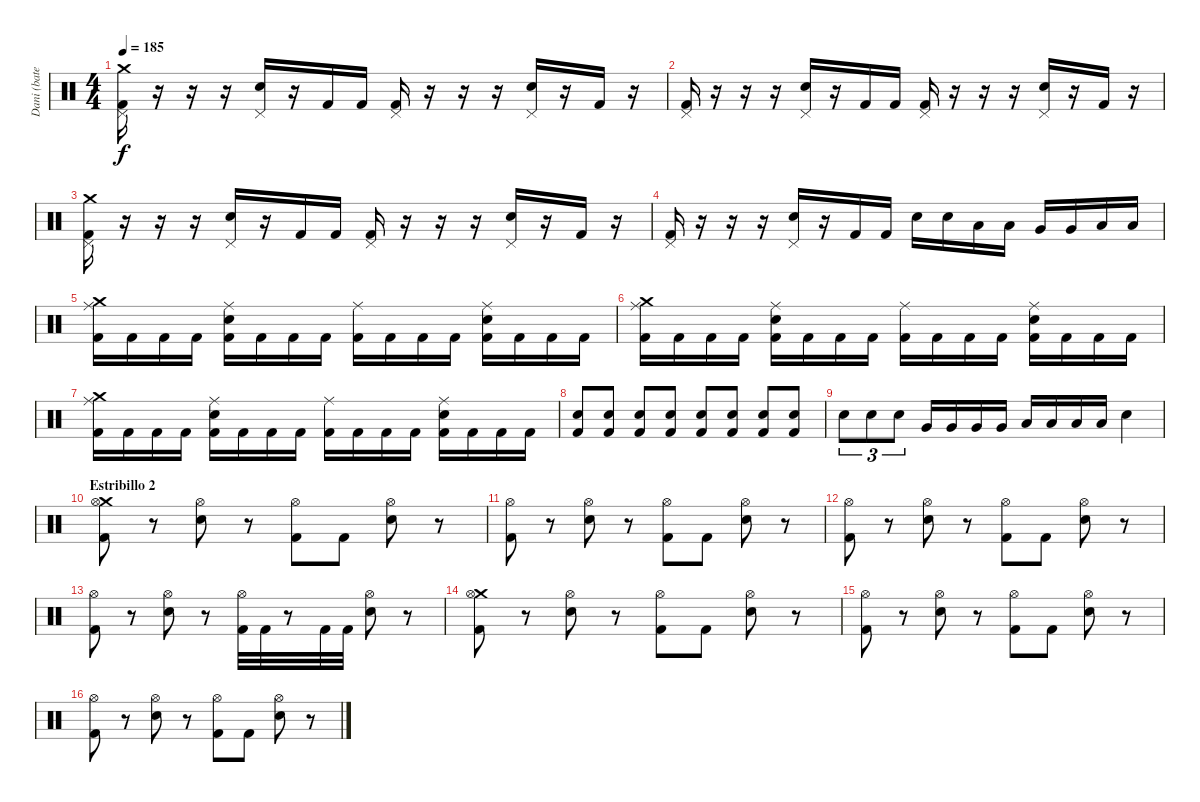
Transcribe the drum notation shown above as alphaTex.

\track ("Dani (batería)" "Dani (bate") {instrument percussion}
\staff {score}
\articulation defaults
\ts (4 4)
\tempo 185
\clef neutral
\ks c
("Crash medium (hit)" "Pedal Hi-Hat (hit)" "Kick (hit) 2").16{dy f} r.16 r.16 r.16 ("Pedal Hi-Hat (hit)" "Snare (hit) 2").16 r.16 "Kick (hit) 2".16 "Kick (hit) 2".16 ("Pedal Hi-Hat (hit)" "Kick (hit) 2").16 r.16 r.16 r.16 ("Pedal Hi-Hat (hit)" "Snare (hit) 2").16 r.16 "Kick (hit) 2".16 r.16 |
("Pedal Hi-Hat (hit)" "Kick (hit) 2").16 r.16 r.16 r.16 ("Pedal Hi-Hat (hit)" "Snare (hit) 2").16 r.16 "Kick (hit) 2".16 "Kick (hit) 2".16 ("Pedal Hi-Hat (hit)" "Kick (hit) 2").16 r.16 r.16 r.16 ("Pedal Hi-Hat (hit)" "Snare (hit) 2").16 r.16 "Kick (hit) 2".16 r.16 |
("Crash medium (hit)" "Pedal Hi-Hat (hit)" "Kick (hit) 2").16 r.16 r.16 r.16 ("Pedal Hi-Hat (hit)" "Snare (hit) 2").16 r.16 "Kick (hit) 2".16 "Kick (hit) 2".16 ("Pedal Hi-Hat (hit)" "Kick (hit) 2").16 r.16 r.16 r.16 ("Pedal Hi-Hat (hit)" "Snare (hit) 2").16 r.16 "Kick (hit) 2".16 r.16 |
("Pedal Hi-Hat (hit)" "Kick (hit) 2").16 r.16 r.16 r.16 ("Pedal Hi-Hat (hit)" "Snare (hit) 2").16 r.16 "Kick (hit) 2".16 "Kick (hit) 2".16 "Snare (hit) 2".16 "Snare (hit) 2".16 "Low Tom (hit)".16 "Low Tom (hit)".16 "Very Low Tom (hit)".16 "Very Low Tom (hit)".16 "Low Floor Tom (hit)".16 "Low Floor Tom (hit)".16 |
("Crash medium (hit)" "Ride (middle)" "Kick (hit) 2").16 "Kick (hit) 2".16 "Kick (hit) 2".16 "Kick (hit) 2".16 ("Ride (middle)" "Snare (hit) 2" "Kick (hit) 2").16 "Kick (hit) 2".16 "Kick (hit) 2".16 "Kick (hit) 2".16 ("Ride (middle)" "Kick (hit) 2").16 "Kick (hit) 2".16 "Kick (hit) 2".16 "Kick (hit) 2".16 ("Ride (middle)" "Snare (hit) 2" "Kick (hit) 2").16 "Kick (hit) 2".16 "Kick (hit) 2".16 "Kick (hit) 2".16 |
("Crash medium (hit)" "Ride (middle)" "Kick (hit) 2").16 "Kick (hit) 2".16 "Kick (hit) 2".16 "Kick (hit) 2".16 ("Ride (middle)" "Snare (hit) 2" "Kick (hit) 2").16 "Kick (hit) 2".16 "Kick (hit) 2".16 "Kick (hit) 2".16 ("Ride (middle)" "Kick (hit) 2").16 "Kick (hit) 2".16 "Kick (hit) 2".16 "Kick (hit) 2".16 ("Ride (middle)" "Snare (hit) 2" "Kick (hit) 2").16 "Kick (hit) 2".16 "Kick (hit) 2".16 "Kick (hit) 2".16 |
("Crash medium (hit)" "Ride (middle)" "Kick (hit) 2").16 "Kick (hit) 2".16 "Kick (hit) 2".16 "Kick (hit) 2".16 ("Ride (middle)" "Snare (hit) 2" "Kick (hit) 2").16 "Kick (hit) 2".16 "Kick (hit) 2".16 "Kick (hit) 2".16 ("Ride (middle)" "Kick (hit) 2").16 "Kick (hit) 2".16 "Kick (hit) 2".16 "Kick (hit) 2".16 ("Ride (middle)" "Snare (hit) 2" "Kick (hit) 2").16 "Kick (hit) 2".16 "Kick (hit) 2".16 "Kick (hit) 2".16 |
("Snare (hit) 2" "Kick (hit) 2").8 ("Snare (hit) 2" "Kick (hit) 2").8 ("Snare (hit) 2" "Kick (hit) 2").8 ("Snare (hit) 2" "Kick (hit) 2").8 ("Snare (hit) 2" "Kick (hit) 2").8 ("Snare (hit) 2" "Kick (hit) 2").8 ("Snare (hit) 2" "Kick (hit) 2").8 ("Snare (hit) 2" "Kick (hit) 2").8 |
"Snare (hit) 2".8{tu (3 2)} "Snare (hit) 2".8{tu (3 2)} "Snare (hit) 2".8{tu (3 2)} "Very Low Tom (hit)".16 "Very Low Tom (hit)".16 "Very Low Tom (hit)".16 "Very Low Tom (hit)".16 "Low Floor Tom (hit)".16 "Low Floor Tom (hit)".16 "Low Floor Tom (hit)".16 "Low Floor Tom (hit)".16 "Snare (hit) 2".4 |
\section ("" "Estribillo 2")
("Crash medium (hit)" "Hi-Hat (open)" "Kick (hit) 2").8 r.8 ("Hi-Hat (open)" "Snare (hit) 2").8 r.8 ("Hi-Hat (open)" "Kick (hit) 2").8 "Kick (hit) 2".8 ("Hi-Hat (open)" "Snare (hit) 2").8 r.8 |
("Hi-Hat (open)" "Kick (hit) 2").8 r.8 ("Hi-Hat (open)" "Snare (hit) 2").8 r.8 ("Hi-Hat (open)" "Kick (hit) 2").8 "Kick (hit) 2".8 ("Hi-Hat (open)" "Snare (hit) 2").8 r.8 |
("Hi-Hat (open)" "Kick (hit) 2").8 r.8 ("Hi-Hat (open)" "Snare (hit) 2").8 r.8 ("Hi-Hat (open)" "Kick (hit) 2").8 "Kick (hit) 2".8 ("Hi-Hat (open)" "Snare (hit) 2").8 r.8 |
("Hi-Hat (open)" "Kick (hit) 2").8 r.8 ("Hi-Hat (open)" "Snare (hit) 2").8 r.8 ("Hi-Hat (open)" "Kick (hit) 2").32 "Kick (hit) 2".32 r.8 "Kick (hit) 2".32 "Kick (hit) 2".32 ("Hi-Hat (open)" "Snare (hit) 2").8 r.8 |
("Crash medium (hit)" "Hi-Hat (open)" "Kick (hit) 2").8 r.8 ("Hi-Hat (open)" "Snare (hit) 2").8 r.8 ("Hi-Hat (open)" "Kick (hit) 2").8 "Kick (hit) 2".8 ("Hi-Hat (open)" "Snare (hit) 2").8 r.8 |
("Hi-Hat (open)" "Kick (hit) 2").8 r.8 ("Hi-Hat (open)" "Snare (hit) 2").8 r.8 ("Hi-Hat (open)" "Kick (hit) 2").8 "Kick (hit) 2".8 ("Hi-Hat (open)" "Snare (hit) 2").8 r.8 |
("Hi-Hat (open)" "Kick (hit) 2").8 r.8 ("Hi-Hat (open)" "Snare (hit) 2").8 r.8 ("Hi-Hat (open)" "Kick (hit) 2").8 "Kick (hit) 2".8 ("Hi-Hat (open)" "Snare (hit) 2").8 r.8
